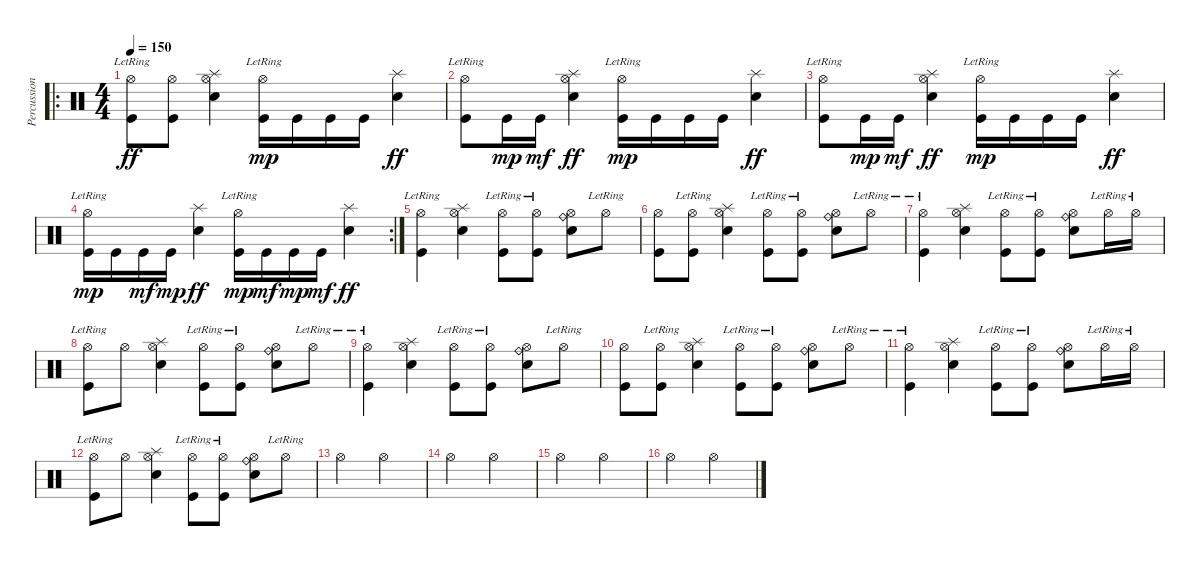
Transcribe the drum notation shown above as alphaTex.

\track ("Percussion" "Percussion") {instrument percussion}
\staff {score}
\articulation defaults
\ro
\ts (4 4)
\tempo 150
\clef neutral
\ks c
("Kick (hit)" "Hi-Hat (open)"{lr}).8{dy ff} ("Hi-Hat (open)" "Kick (hit)").8 ("Snare (hit) 2" "Hi-Hat (open)" "Splash (hit)").4 ("Hi-Hat (open)"{lr} "Kick (hit)").16{dy mp} "Kick (hit)".16 "Kick (hit)".16 "Kick (hit)".16 ("Snare (hit) 2" "Splash (hit)").4{dy ff} |
("Kick (hit)" "Hi-Hat (open)"{lr}).8 "Kick (hit)".16{dy mp} "Kick (hit)".16{dy mf} ("Snare (hit) 2" "Hi-Hat (open)" "Splash (hit)").4{dy ff} ("Hi-Hat (open)"{lr} "Kick (hit)").16{dy mp} "Kick (hit)".16 "Kick (hit)".16 "Kick (hit)".16 ("Snare (hit) 2" "Splash (hit)").4{dy ff} |
("Kick (hit)" "Hi-Hat (open)"{lr}).8 "Kick (hit)".16{dy mp} "Kick (hit)".16{dy mf} ("Snare (hit) 2" "Hi-Hat (open)" "Splash (hit)").4{dy ff} ("Hi-Hat (open)"{lr} "Kick (hit)").16{dy mp} "Kick (hit)".16 "Kick (hit)".16 "Kick (hit)".16 ("Snare (hit) 2" "Splash (hit)").4{dy ff} |
\rc 2
("Hi-Hat (open)"{lr} "Kick (hit)").16{dy mp} "Kick (hit)".16 "Kick (hit)".16{dy mf} "Kick (hit)".16{dy mp} ("Snare (hit) 2" "Splash (hit)").4{dy ff} ("Hi-Hat (open)"{lr} "Kick (hit)").16{dy mp} "Kick (hit)".16{dy mf} "Kick (hit)".16{dy mp} "Kick (hit)".16{dy mf} ("Snare (hit) 2" "Splash (hit)").4{dy ff} |
("Kick (hit)" "Hi-Hat (open)"{lr}).4 ("Snare (hit) 2" "Hi-Hat (open)" "Splash (hit)").4 ("Kick (hit)" "Hi-Hat (open)"{lr}).8 ("Kick (hit)" "Hi-Hat (open)"{lr}).8 ("Snare (hit) 2" "Ride (bell)" "Hi-Hat (open)").8 "Hi-Hat (open)"{lr}.8 |
("Kick (hit)" "Hi-Hat (open)").8 ("Kick (hit)" "Hi-Hat (open)"{lr}).8 ("Snare (hit) 2" "Hi-Hat (open)" "Splash (hit)").4 ("Kick (hit)" "Hi-Hat (open)"{lr}).8 ("Kick (hit)" "Hi-Hat (open)"{lr}).8 ("Snare (hit) 2" "Ride (bell)" "Hi-Hat (open)").8 "Hi-Hat (open)"{lr}.8 |
("Kick (hit)" "Hi-Hat (open)"{lr}).4 ("Snare (hit) 2" "Hi-Hat (open)" "Splash (hit)").4 ("Kick (hit)" "Hi-Hat (open)"{lr}).8 ("Kick (hit)" "Hi-Hat (open)"{lr}).8 ("Snare (hit) 2" "Ride (bell)" "Hi-Hat (open)").8 "Hi-Hat (open)"{lr}.16 "Hi-Hat (open)"{lr}.16 |
("Kick (hit)" "Hi-Hat (open)"{lr}).8 "Hi-Hat (open)".8 ("Snare (hit) 2" "Hi-Hat (open)" "Splash (hit)").4 ("Kick (hit)" "Hi-Hat (open)"{lr}).8 ("Kick (hit)" "Hi-Hat (open)"{lr}).8 ("Snare (hit) 2" "Ride (bell)" "Hi-Hat (open)").8 "Hi-Hat (open)"{lr}.8 |
("Kick (hit)" "Hi-Hat (open)"{lr}).4 ("Snare (hit) 2" "Hi-Hat (open)" "Splash (hit)").4 ("Kick (hit)" "Hi-Hat (open)"{lr}).8 ("Kick (hit)" "Hi-Hat (open)"{lr}).8 ("Snare (hit) 2" "Ride (bell)" "Hi-Hat (open)").8 "Hi-Hat (open)"{lr}.8 |
("Kick (hit)" "Hi-Hat (open)").8 ("Kick (hit)" "Hi-Hat (open)"{lr}).8 ("Snare (hit) 2" "Hi-Hat (open)" "Splash (hit)").4 ("Kick (hit)" "Hi-Hat (open)"{lr}).8 ("Kick (hit)" "Hi-Hat (open)"{lr}).8 ("Snare (hit) 2" "Ride (bell)" "Hi-Hat (open)").8 "Hi-Hat (open)"{lr}.8 |
("Kick (hit)" "Hi-Hat (open)"{lr}).4 ("Snare (hit) 2" "Hi-Hat (open)" "Splash (hit)").4 ("Kick (hit)" "Hi-Hat (open)"{lr}).8 ("Kick (hit)" "Hi-Hat (open)"{lr}).8 ("Snare (hit) 2" "Ride (bell)" "Hi-Hat (open)").8 "Hi-Hat (open)"{lr}.16 "Hi-Hat (open)"{lr}.16 |
("Kick (hit)" "Hi-Hat (open)"{lr}).8 "Hi-Hat (open)".8 ("Snare (hit) 2" "Hi-Hat (open)" "Splash (hit)").4 ("Kick (hit)" "Hi-Hat (open)"{lr}).8 ("Kick (hit)" "Hi-Hat (open)"{lr}).8 ("Snare (hit) 2" "Ride (bell)" "Hi-Hat (open)").8 "Hi-Hat (open)"{lr}.8 |
"Hi-Hat (open)".2 "Hi-Hat (open)".2 |
"Hi-Hat (open)".2 "Hi-Hat (open)".2 |
"Hi-Hat (open)".2 "Hi-Hat (open)".2 |
"Hi-Hat (open)".2 "Hi-Hat (open)".2
